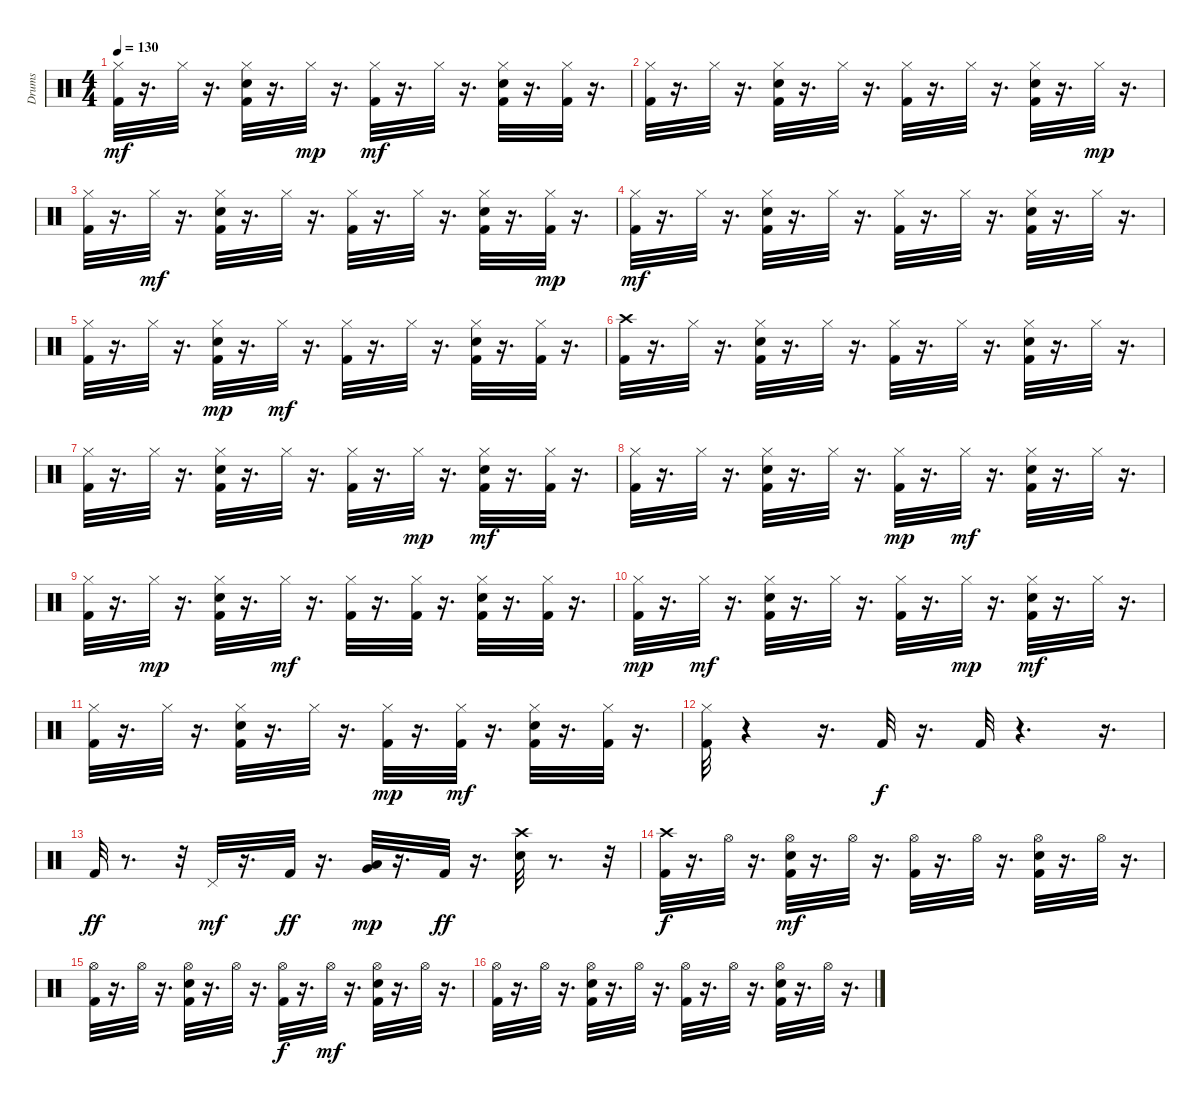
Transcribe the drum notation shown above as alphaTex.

\track ("Drums" "Drums") {instrument percussion}
\staff {score}
\articulation defaults
\ts (4 4)
\tempo 130
\clef neutral
\ks c
("Kick (hit) 2" "Hi-Hat (closed)").32{dy mf} r.16{d} "Hi-Hat (closed)".32 r.16{d} ("Kick (hit) 2" "Hand Clap (hit)" "Hi-Hat (closed)").32 r.16{d} "Hi-Hat (closed)".32{dy mp} r.16{d} ("Kick (hit) 2" "Hi-Hat (closed)").32{dy mf} r.16{d} "Hi-Hat (closed)".32 r.16{d} ("Kick (hit) 2" "Hand Clap (hit)" "Hi-Hat (closed)").32 r.16{d} ("Kick (hit) 2" "Hi-Hat (closed)").32 r.16{d} |
("Kick (hit) 2" "Hi-Hat (closed)").32 r.16{d} "Hi-Hat (closed)".32 r.16{d} ("Kick (hit) 2" "Hand Clap (hit)" "Hi-Hat (closed)").32 r.16{d} "Hi-Hat (closed)".32 r.16{d} ("Kick (hit) 2" "Hi-Hat (closed)").32 r.16{d} "Hi-Hat (closed)".32 r.16{d} ("Kick (hit) 2" "Hand Clap (hit)" "Hi-Hat (closed)").32 r.16{d} "Hi-Hat (closed)".32{dy mp} r.16{d} |
("Kick (hit) 2" "Hi-Hat (closed)").32 r.16{d} "Hi-Hat (closed)".32{dy mf} r.16{d} ("Kick (hit) 2" "Hand Clap (hit)" "Hi-Hat (closed)").32 r.16{d} "Hi-Hat (closed)".32 r.16{d} ("Kick (hit) 2" "Hi-Hat (closed)").32 r.16{d} "Hi-Hat (closed)".32 r.16{d} ("Kick (hit) 2" "Hand Clap (hit)" "Hi-Hat (closed)").32 r.16{d} ("Kick (hit) 2" "Hi-Hat (closed)").32{dy mp} r.16{d} |
("Kick (hit) 2" "Hi-Hat (closed)").32{dy mf} r.16{d} "Hi-Hat (closed)".32 r.16{d} ("Kick (hit) 2" "Hand Clap (hit)" "Hi-Hat (closed)").32 r.16{d} "Hi-Hat (closed)".32 r.16{d} ("Kick (hit) 2" "Hi-Hat (closed)").32 r.16{d} "Hi-Hat (closed)".32 r.16{d} ("Kick (hit) 2" "Hand Clap (hit)" "Hi-Hat (closed)").32 r.16{d} "Hi-Hat (closed)".32 r.16{d} |
("Kick (hit) 2" "Hi-Hat (closed)").32 r.16{d} "Hi-Hat (closed)".32 r.16{d} ("Kick (hit) 2" "Hand Clap (hit)" "Hi-Hat (closed)").32{dy mp} r.16{d} "Hi-Hat (closed)".32{dy mf} r.16{d} ("Kick (hit) 2" "Hi-Hat (closed)").32 r.16{d} "Hi-Hat (closed)".32 r.16{d} ("Kick (hit) 2" "Hand Clap (hit)" "Hi-Hat (closed)").32 r.16{d} ("Kick (hit) 2" "Hi-Hat (closed)").32 r.16{d} |
("Kick (hit) 2" "Crash high (hit)").32 r.16{d} "Hi-Hat (closed)".32 r.16{d} ("Kick (hit) 2" "Electric Snare (hit)" "Hi-Hat (closed)").32 r.16{d} "Hi-Hat (closed)".32 r.16{d} ("Kick (hit) 2" "Hi-Hat (closed)").32 r.16{d} "Hi-Hat (closed)".32 r.16{d} ("Kick (hit) 2" "Electric Snare (hit)" "Hi-Hat (closed)").32 r.16{d} "Hi-Hat (closed)".32 r.16{d} |
("Kick (hit) 2" "Hi-Hat (closed)").32 r.16{d} "Hi-Hat (closed)".32 r.16{d} ("Kick (hit) 2" "Electric Snare (hit)" "Hi-Hat (closed)").32 r.16{d} "Hi-Hat (closed)".32 r.16{d} ("Kick (hit) 2" "Hi-Hat (closed)").32 r.16{d} "Hi-Hat (closed)".32{dy mp} r.16{d} ("Kick (hit) 2" "Electric Snare (hit)" "Hi-Hat (closed)").32{dy mf} r.16{d} ("Kick (hit) 2" "Hi-Hat (closed)").32 r.16{d} |
("Kick (hit) 2" "Hi-Hat (closed)").32 r.16{d} "Hi-Hat (closed)".32 r.16{d} ("Kick (hit) 2" "Electric Snare (hit)" "Hi-Hat (closed)").32 r.16{d} "Hi-Hat (closed)".32 r.16{d} ("Kick (hit) 2" "Hi-Hat (closed)").32{dy mp} r.16{d} "Hi-Hat (closed)".32{dy mf} r.16{d} ("Kick (hit) 2" "Electric Snare (hit)" "Hi-Hat (closed)").32 r.16{d} "Hi-Hat (closed)".32 r.16{d} |
("Kick (hit) 2" "Hi-Hat (closed)").32 r.16{d} "Hi-Hat (closed)".32{dy mp} r.16{d} ("Kick (hit) 2" "Electric Snare (hit)" "Hi-Hat (closed)").32 r.16{d} "Hi-Hat (closed)".32{dy mf} r.16{d} ("Kick (hit) 2" "Hi-Hat (closed)").32 r.16{d} ("Kick (hit) 2" "Hi-Hat (closed)").32 r.16{d} ("Kick (hit) 2" "Electric Snare (hit)" "Hi-Hat (closed)").32 r.16{d} ("Kick (hit) 2" "Hi-Hat (closed)").32 r.16{d} |
("Kick (hit) 2" "Hi-Hat (closed)").32{dy mp} r.16{d} "Hi-Hat (closed)".32{dy mf} r.16{d} ("Kick (hit) 2" "Electric Snare (hit)" "Hi-Hat (closed)").32 r.16{d} "Hi-Hat (closed)".32 r.16{d} ("Kick (hit) 2" "Hi-Hat (closed)").32 r.16{d} "Hi-Hat (closed)".32{dy mp} r.16{d} ("Kick (hit) 2" "Electric Snare (hit)" "Hi-Hat (closed)").32{dy mf} r.16{d} "Hi-Hat (closed)".32 r.16{d} |
("Kick (hit) 2" "Hi-Hat (closed)").32 r.16{d} "Hi-Hat (closed)".32 r.16{d} ("Kick (hit) 2" "Electric Snare (hit)" "Hi-Hat (closed)").32 r.16{d} "Hi-Hat (closed)".32 r.16{d} ("Kick (hit) 2" "Hi-Hat (closed)").32{dy mp} r.16{d} ("Kick (hit) 2" "Hi-Hat (closed)").32{dy mf} r.16{d} ("Kick (hit) 2" "Electric Snare (hit)" "Hi-Hat (closed)").32 r.16{d} ("Kick (hit) 2" "Hi-Hat (closed)").32 r.16{d} |
("Kick (hit) 2" "Hi-Hat (closed)").32 r.4 r.16{d} "Kick (hit) 2".32{dy f} r.16{d} "Kick (hit) 2".32 r.4{d} r.16{d} |
"Kick (hit) 2".32{dy ff} r.8{d} r.32 "Pedal Hi-Hat (hit)".32{dy mf} r.16{d} "Kick (hit) 2".32{dy ff} r.16{d} ("Low Floor Tom (hit)" "Very Low Tom (hit)").32{dy mp} r.16{d} "Kick (hit) 2".32{dy ff} r.16{d} ("Electric Snare (hit)" "Crash high (hit)").32 r.8{d} r.32 |
("Kick (hit) 2" "Crash high (hit)").32{dy f} r.16{d} "Hi-Hat (open)".32 r.16{d} ("Kick (hit) 2" "Electric Snare (hit)" "Hi-Hat (open)").32{dy mf} r.16{d} "Hi-Hat (open)".32 r.16{d} ("Kick (hit) 2" "Hi-Hat (open)").32 r.16{d} "Hi-Hat (open)".32 r.16{d} ("Kick (hit) 2" "Electric Snare (hit)" "Hi-Hat (open)").32 r.16{d} "Hi-Hat (open)".32 r.16{d} |
("Kick (hit) 2" "Hi-Hat (open)").32 r.16{d} "Hi-Hat (open)".32 r.16{d} ("Kick (hit) 2" "Electric Snare (hit)" "Hi-Hat (open)").32 r.16{d} "Hi-Hat (open)".32 r.16{d} ("Kick (hit) 2" "Hi-Hat (open)").32{dy f} r.16{d} "Hi-Hat (open)".32{dy mf} r.16{d} ("Kick (hit) 2" "Electric Snare (hit)" "Hi-Hat (open)").32 r.16{d} "Hi-Hat (open)".32 r.16{d} |
("Kick (hit) 2" "Hi-Hat (open)").32 r.16{d} "Hi-Hat (open)".32 r.16{d} ("Kick (hit) 2" "Electric Snare (hit)" "Hi-Hat (open)").32 r.16{d} "Hi-Hat (open)".32 r.16{d} ("Kick (hit) 2" "Hi-Hat (open)").32 r.16{d} "Hi-Hat (open)".32 r.16{d} ("Kick (hit) 2" "Electric Snare (hit)" "Hi-Hat (open)").32 r.16{d} "Hi-Hat (open)".32 r.16{d}
